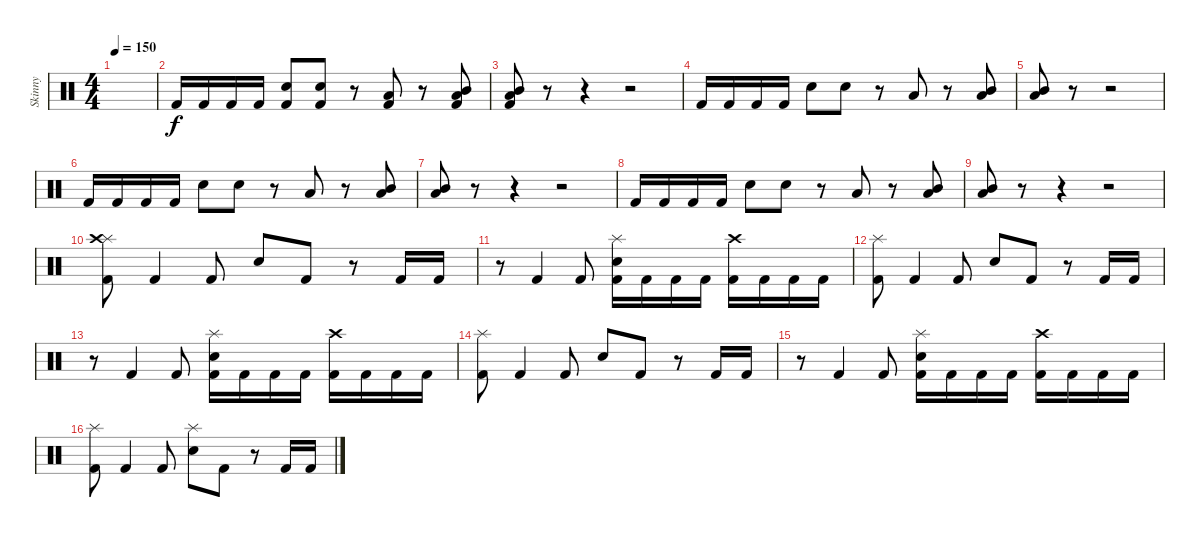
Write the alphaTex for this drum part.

\track ("Skinny" "Skinny") {instrument percussion}
\staff {score}
\articulation defaults
\ts (4 4)
\tempo 150
\clef neutral
\ks c
|
"Kick (hit) 2".16 "Kick (hit) 2".16 "Kick (hit) 2".16 "Kick (hit) 2".16 ("Electric Snare (hit)" "Kick (hit) 2").8 ("Electric Snare (hit)" "Kick (hit) 2").8 r.8 ("Low Tom (hit)" "Kick (hit) 2").8 r.8 ("Mid Tom (hit)" "Low Floor Tom (hit)" "Kick (hit) 2").8 |
("Mid Tom (hit)" "Low Floor Tom (hit)" "Kick (hit) 2").8 r.8 r.4 r.2 |
"Kick (hit) 2".16 "Kick (hit) 2".16 "Kick (hit) 2".16 "Kick (hit) 2".16 "Electric Snare (hit)".8 "Electric Snare (hit)".8 r.8 "Low Tom (hit)".8 r.8 ("Mid Tom (hit)" "Low Floor Tom (hit)").8 |
("Mid Tom (hit)" "Low Floor Tom (hit)").8 r.8 r.2 |
"Kick (hit) 2".16 "Kick (hit) 2".16 "Kick (hit) 2".16 "Kick (hit) 2".16 "Electric Snare (hit)".8 "Electric Snare (hit)".8 r.8 "Low Tom (hit)".8 r.8 ("Mid Tom (hit)" "Low Floor Tom (hit)").8 |
("Mid Tom (hit)" "Low Floor Tom (hit)").8 r.8 r.4 r.2 |
"Kick (hit) 2".16 "Kick (hit) 2".16 "Kick (hit) 2".16 "Kick (hit) 2".16 "Electric Snare (hit)".8 "Electric Snare (hit)".8 r.8 "Low Tom (hit)".8 r.8 ("Mid Tom (hit)" "Low Floor Tom (hit)").8 |
("Mid Tom (hit)" "Low Floor Tom (hit)").8 r.8 r.4 r.2 |
("Splash (hit)" "Crash high (hit)" "Kick (hit) 2").8 "Kick (hit) 2".4 "Kick (hit) 2".8 "Electric Snare (hit)".8 "Kick (hit) 2".8 r.8 "Kick (hit) 2".16 "Kick (hit) 2".16 |
r.8 "Kick (hit) 2".4 "Kick (hit) 2".8 ("Splash (hit)" "Electric Snare (hit)" "Kick (hit) 2").16 "Kick (hit) 2".16 "Kick (hit) 2".16 "Kick (hit) 2".16 ("Crash high (hit)" "Kick (hit) 2").16 "Kick (hit) 2".16 "Kick (hit) 2".16 "Kick (hit) 2".16 |
("Splash (hit)" "Kick (hit) 2").8 "Kick (hit) 2".4 "Kick (hit) 2".8 "Electric Snare (hit)".8 "Kick (hit) 2".8 r.8 "Kick (hit) 2".16 "Kick (hit) 2".16 |
r.8 "Kick (hit) 2".4 "Kick (hit) 2".8 ("Splash (hit)" "Electric Snare (hit)" "Kick (hit) 2").16 "Kick (hit) 2".16 "Kick (hit) 2".16 "Kick (hit) 2".16 ("Crash high (hit)" "Kick (hit) 2").16 "Kick (hit) 2".16 "Kick (hit) 2".16 "Kick (hit) 2".16 |
("Splash (hit)" "Kick (hit) 2").8 "Kick (hit) 2".4 "Kick (hit) 2".8 "Electric Snare (hit)".8 "Kick (hit) 2".8 r.8 "Kick (hit) 2".16 "Kick (hit) 2".16 |
r.8 "Kick (hit) 2".4 "Kick (hit) 2".8 ("Splash (hit)" "Electric Snare (hit)" "Kick (hit) 2").16 "Kick (hit) 2".16 "Kick (hit) 2".16 "Kick (hit) 2".16 ("Crash high (hit)" "Kick (hit) 2").16 "Kick (hit) 2".16 "Kick (hit) 2".16 "Kick (hit) 2".16 |
("Splash (hit)" "Kick (hit) 2").8 "Kick (hit) 2".4 "Kick (hit) 2".8 ("Splash (hit)" "Electric Snare (hit)").8 "Kick (hit) 2".8 r.8 "Kick (hit) 2".16 "Kick (hit) 2".16
